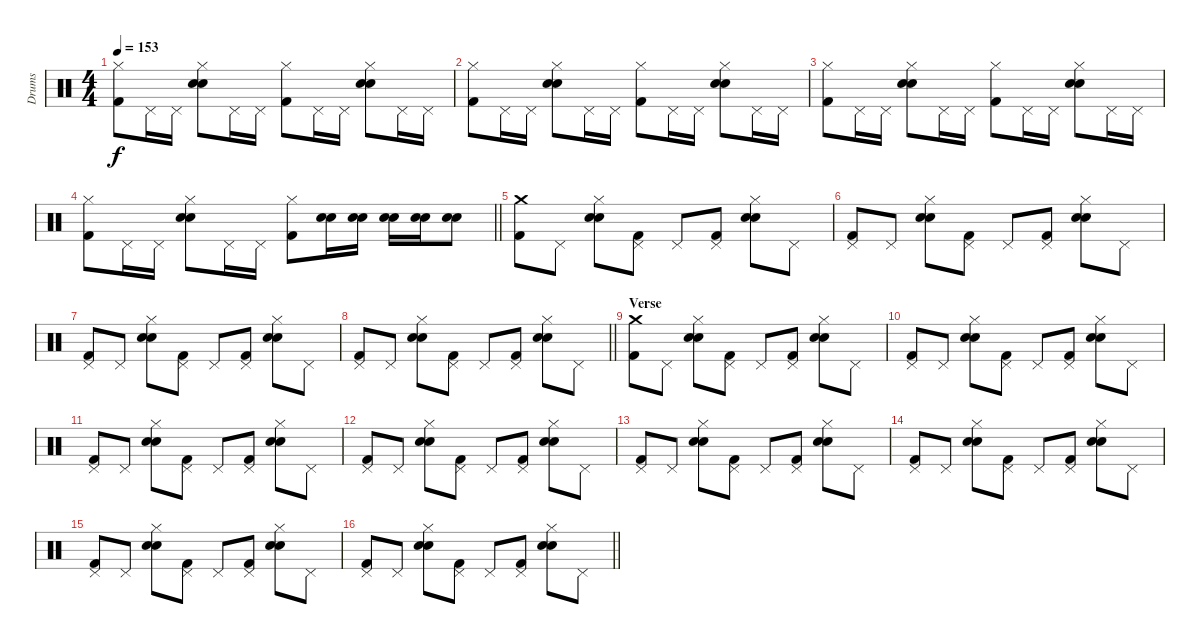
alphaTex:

\track ("Drums" "Drums") {instrument percussion}
\staff {score}
\articulation defaults
\ts (4 4)
\tempo 153
\clef neutral
\ks c
("Hi-Hat (closed)" "Kick (hit) 2").8{dy f} "Pedal Hi-Hat (hit)".16 "Pedal Hi-Hat (hit)".16 ("Hi-Hat (closed)" "Electric Snare (hit)" "Snare (hit) 2").8 "Pedal Hi-Hat (hit)".16 "Pedal Hi-Hat (hit)".16 ("Hi-Hat (closed)" "Kick (hit) 2").8 "Pedal Hi-Hat (hit)".16 "Pedal Hi-Hat (hit)".16 ("Hi-Hat (closed)" "Electric Snare (hit)" "Snare (hit) 2").8 "Pedal Hi-Hat (hit)".16 "Pedal Hi-Hat (hit)".16 |
("Hi-Hat (closed)" "Kick (hit) 2").8 "Pedal Hi-Hat (hit)".16 "Pedal Hi-Hat (hit)".16 ("Hi-Hat (closed)" "Electric Snare (hit)" "Snare (hit) 2").8 "Pedal Hi-Hat (hit)".16 "Pedal Hi-Hat (hit)".16 ("Hi-Hat (closed)" "Kick (hit) 2").8 "Pedal Hi-Hat (hit)".16 "Pedal Hi-Hat (hit)".16 ("Hi-Hat (closed)" "Electric Snare (hit)" "Snare (hit) 2").8 "Pedal Hi-Hat (hit)".16 "Pedal Hi-Hat (hit)".16 |
("Hi-Hat (closed)" "Kick (hit) 2").8 "Pedal Hi-Hat (hit)".16 "Pedal Hi-Hat (hit)".16 ("Hi-Hat (closed)" "Electric Snare (hit)" "Snare (hit) 2").8 "Pedal Hi-Hat (hit)".16 "Pedal Hi-Hat (hit)".16 ("Hi-Hat (closed)" "Kick (hit) 2").8 "Pedal Hi-Hat (hit)".16 "Pedal Hi-Hat (hit)".16 ("Hi-Hat (closed)" "Electric Snare (hit)" "Snare (hit) 2").8 "Pedal Hi-Hat (hit)".16 "Pedal Hi-Hat (hit)".16 |
\barLineRight lightlight
("Hi-Hat (closed)" "Kick (hit) 2").8 "Pedal Hi-Hat (hit)".16 "Pedal Hi-Hat (hit)".16 ("Hi-Hat (closed)" "Electric Snare (hit)" "Snare (hit) 2").8 "Pedal Hi-Hat (hit)".16 "Pedal Hi-Hat (hit)".16 ("Hi-Hat (closed)" "Kick (hit) 2").8 ("Electric Snare (hit)" "Snare (hit) 2").16 ("Electric Snare (hit)" "Snare (hit) 2").16 ("Electric Snare (hit)" "Snare (hit) 2").16 ("Electric Snare (hit)" "Snare (hit) 2").16 ("Electric Snare (hit)" "Snare (hit) 2").8 |
\section ("" "")
("Crash medium (hit)" "Kick (hit) 2").8 "Pedal Hi-Hat (hit)".8 ("Hi-Hat (closed)" "Electric Snare (hit)" "Snare (hit) 2").8 ("Pedal Hi-Hat (hit)" "Kick (hit) 2").8 "Pedal Hi-Hat (hit)".8 ("Pedal Hi-Hat (hit)" "Kick (hit) 2").8 ("Hi-Hat (closed)" "Electric Snare (hit)" "Snare (hit) 2").8 "Pedal Hi-Hat (hit)".8 |
("Pedal Hi-Hat (hit)" "Kick (hit) 2").8 "Pedal Hi-Hat (hit)".8 ("Hi-Hat (closed)" "Electric Snare (hit)" "Snare (hit) 2").8 ("Pedal Hi-Hat (hit)" "Kick (hit) 2").8 "Pedal Hi-Hat (hit)".8 ("Pedal Hi-Hat (hit)" "Kick (hit) 2").8 ("Hi-Hat (closed)" "Electric Snare (hit)" "Snare (hit) 2").8 "Pedal Hi-Hat (hit)".8 |
("Pedal Hi-Hat (hit)" "Kick (hit) 2").8 "Pedal Hi-Hat (hit)".8 ("Hi-Hat (closed)" "Electric Snare (hit)" "Snare (hit) 2").8 ("Pedal Hi-Hat (hit)" "Kick (hit) 2").8 "Pedal Hi-Hat (hit)".8 ("Pedal Hi-Hat (hit)" "Kick (hit) 2").8 ("Hi-Hat (closed)" "Electric Snare (hit)" "Snare (hit) 2").8 "Pedal Hi-Hat (hit)".8 |
\barLineRight lightlight
("Pedal Hi-Hat (hit)" "Kick (hit) 2").8 "Pedal Hi-Hat (hit)".8 ("Hi-Hat (closed)" "Electric Snare (hit)" "Snare (hit) 2").8 ("Pedal Hi-Hat (hit)" "Kick (hit) 2").8 "Pedal Hi-Hat (hit)".8 ("Pedal Hi-Hat (hit)" "Kick (hit) 2").8 ("Hi-Hat (closed)" "Electric Snare (hit)" "Snare (hit) 2").8 "Pedal Hi-Hat (hit)".8 |
\section ("" "Verse")
("Crash medium (hit)" "Kick (hit) 2").8 "Pedal Hi-Hat (hit)".8 ("Hi-Hat (closed)" "Electric Snare (hit)" "Snare (hit) 2").8 ("Pedal Hi-Hat (hit)" "Kick (hit) 2").8 "Pedal Hi-Hat (hit)".8 ("Pedal Hi-Hat (hit)" "Kick (hit) 2").8 ("Hi-Hat (closed)" "Electric Snare (hit)" "Snare (hit) 2").8 "Pedal Hi-Hat (hit)".8 |
("Pedal Hi-Hat (hit)" "Kick (hit) 2").8 "Pedal Hi-Hat (hit)".8 ("Hi-Hat (closed)" "Electric Snare (hit)" "Snare (hit) 2").8 ("Pedal Hi-Hat (hit)" "Kick (hit) 2").8 "Pedal Hi-Hat (hit)".8 ("Pedal Hi-Hat (hit)" "Kick (hit) 2").8 ("Hi-Hat (closed)" "Electric Snare (hit)" "Snare (hit) 2").8 "Pedal Hi-Hat (hit)".8 |
("Pedal Hi-Hat (hit)" "Kick (hit) 2").8 "Pedal Hi-Hat (hit)".8 ("Hi-Hat (closed)" "Electric Snare (hit)" "Snare (hit) 2").8 ("Pedal Hi-Hat (hit)" "Kick (hit) 2").8 "Pedal Hi-Hat (hit)".8 ("Pedal Hi-Hat (hit)" "Kick (hit) 2").8 ("Hi-Hat (closed)" "Electric Snare (hit)" "Snare (hit) 2").8 "Pedal Hi-Hat (hit)".8 |
("Pedal Hi-Hat (hit)" "Kick (hit) 2").8 "Pedal Hi-Hat (hit)".8 ("Hi-Hat (closed)" "Electric Snare (hit)" "Snare (hit) 2").8 ("Pedal Hi-Hat (hit)" "Kick (hit) 2").8 "Pedal Hi-Hat (hit)".8 ("Pedal Hi-Hat (hit)" "Kick (hit) 2").8 ("Hi-Hat (closed)" "Electric Snare (hit)" "Snare (hit) 2").8 "Pedal Hi-Hat (hit)".8 |
("Pedal Hi-Hat (hit)" "Kick (hit) 2").8 "Pedal Hi-Hat (hit)".8 ("Hi-Hat (closed)" "Electric Snare (hit)" "Snare (hit) 2").8 ("Pedal Hi-Hat (hit)" "Kick (hit) 2").8 "Pedal Hi-Hat (hit)".8 ("Pedal Hi-Hat (hit)" "Kick (hit) 2").8 ("Hi-Hat (closed)" "Electric Snare (hit)" "Snare (hit) 2").8 "Pedal Hi-Hat (hit)".8 |
("Pedal Hi-Hat (hit)" "Kick (hit) 2").8 "Pedal Hi-Hat (hit)".8 ("Hi-Hat (closed)" "Electric Snare (hit)" "Snare (hit) 2").8 ("Pedal Hi-Hat (hit)" "Kick (hit) 2").8 "Pedal Hi-Hat (hit)".8 ("Pedal Hi-Hat (hit)" "Kick (hit) 2").8 ("Hi-Hat (closed)" "Electric Snare (hit)" "Snare (hit) 2").8 "Pedal Hi-Hat (hit)".8 |
("Pedal Hi-Hat (hit)" "Kick (hit) 2").8 "Pedal Hi-Hat (hit)".8 ("Hi-Hat (closed)" "Electric Snare (hit)" "Snare (hit) 2").8 ("Pedal Hi-Hat (hit)" "Kick (hit) 2").8 "Pedal Hi-Hat (hit)".8 ("Pedal Hi-Hat (hit)" "Kick (hit) 2").8 ("Hi-Hat (closed)" "Electric Snare (hit)" "Snare (hit) 2").8 "Pedal Hi-Hat (hit)".8 |
\barLineRight lightlight
("Pedal Hi-Hat (hit)" "Kick (hit) 2").8 "Pedal Hi-Hat (hit)".8 ("Hi-Hat (closed)" "Electric Snare (hit)" "Snare (hit) 2").8 ("Pedal Hi-Hat (hit)" "Kick (hit) 2").8 "Pedal Hi-Hat (hit)".8 ("Pedal Hi-Hat (hit)" "Kick (hit) 2").8 ("Hi-Hat (closed)" "Electric Snare (hit)" "Snare (hit) 2").8 "Pedal Hi-Hat (hit)".8
